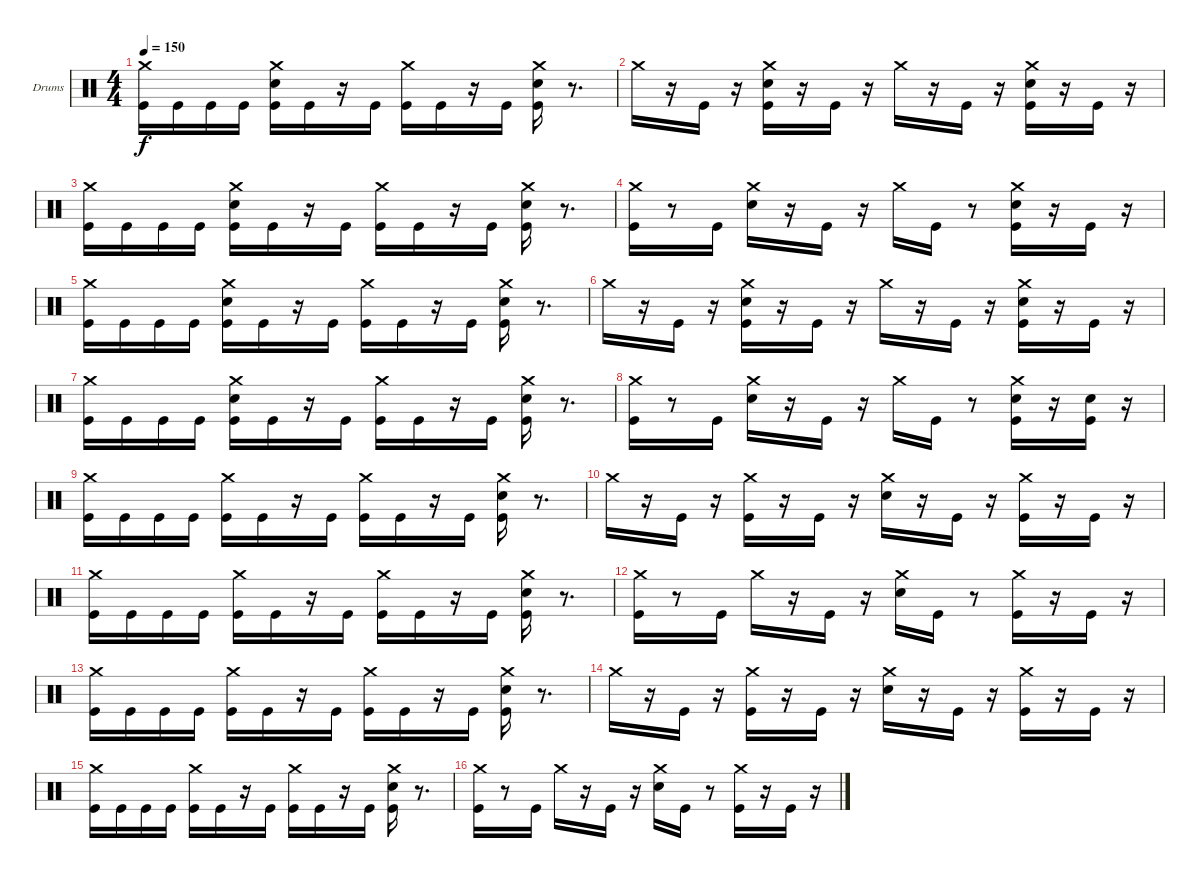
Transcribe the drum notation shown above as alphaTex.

\bracketExtendMode groupsimilarinstruments
\firstSystemTrackNameOrientation horizontal
\otherSystemsTrackNameOrientation horizontal
\track ("Rolo" "Drums") {instrument percussion}
\staff {score}
\articulation defaults
\ts (4 4)
\tempo 150
\clef neutral
\ks c
("Crash medium (hit)" "Kick (hit)").16{dy f} "Kick (hit)".16 "Kick (hit)".16 "Kick (hit)".16 ("Crash medium (hit)" "Snare (hit) 2" "Kick (hit)").16 "Kick (hit)".16 r.16 "Kick (hit)".16 ("Crash medium (hit)" "Kick (hit)").16 "Kick (hit)".16 r.16 "Kick (hit)".16 ("Crash medium (hit)" "Snare (hit) 2" "Kick (hit)").16 r.8{d} |
"Crash medium (hit)".16 r.16 "Kick (hit)".16 r.16 ("Crash medium (hit)" "Snare (hit) 2" "Kick (hit)").16 r.16 "Kick (hit)".16 r.16 "Crash medium (hit)".16 r.16 "Kick (hit)".16 r.16 ("Crash medium (hit)" "Snare (hit) 2" "Kick (hit)").16 r.16 "Kick (hit)".16 r.16 |
("Crash medium (hit)" "Kick (hit)").16 "Kick (hit)".16 "Kick (hit)".16 "Kick (hit)".16 ("Crash medium (hit)" "Snare (hit) 2" "Kick (hit)").16 "Kick (hit)".16 r.16 "Kick (hit)".16 ("Crash medium (hit)" "Kick (hit)").16 "Kick (hit)".16 r.16 "Kick (hit)".16 ("Crash medium (hit)" "Snare (hit) 2" "Kick (hit)").16 r.8{d} |
("Crash medium (hit)" "Kick (hit)").16 r.8 "Kick (hit)".16 ("Crash medium (hit)" "Snare (hit) 2").16 r.16 "Kick (hit)".16 r.16 "Crash medium (hit)".16 "Kick (hit)".16 r.8 ("Crash medium (hit)" "Snare (hit) 2" "Kick (hit)").16 r.16 "Kick (hit)".16 r.16 |
("Crash medium (hit)" "Kick (hit)").16 "Kick (hit)".16 "Kick (hit)".16 "Kick (hit)".16 ("Crash medium (hit)" "Snare (hit) 2" "Kick (hit)").16 "Kick (hit)".16 r.16 "Kick (hit)".16 ("Crash medium (hit)" "Kick (hit)").16 "Kick (hit)".16 r.16 "Kick (hit)".16 ("Crash medium (hit)" "Snare (hit) 2" "Kick (hit)").16 r.8{d} |
"Crash medium (hit)".16 r.16 "Kick (hit)".16 r.16 ("Crash medium (hit)" "Snare (hit) 2" "Kick (hit)").16 r.16 "Kick (hit)".16 r.16 "Crash medium (hit)".16 r.16 "Kick (hit)".16 r.16 ("Crash medium (hit)" "Snare (hit) 2" "Kick (hit)").16 r.16 "Kick (hit)".16 r.16 |
("Crash medium (hit)" "Kick (hit)").16 "Kick (hit)".16 "Kick (hit)".16 "Kick (hit)".16 ("Crash medium (hit)" "Snare (hit) 2" "Kick (hit)").16 "Kick (hit)".16 r.16 "Kick (hit)".16 ("Crash medium (hit)" "Kick (hit)").16 "Kick (hit)".16 r.16 "Kick (hit)".16 ("Crash medium (hit)" "Snare (hit) 2" "Kick (hit)").16 r.8{d} |
("Crash medium (hit)" "Kick (hit)").16 r.8 "Kick (hit)".16 ("Crash medium (hit)" "Snare (hit) 2").16 r.16 "Kick (hit)".16 r.16 "Crash medium (hit)".16 "Kick (hit)".16 r.8 ("Crash medium (hit)" "Snare (hit) 2" "Kick (hit)").16 r.16 ("Snare (hit) 2" "Kick (hit)").16 r.16 |
("Crash medium (hit)" "Kick (hit)").16 "Kick (hit)".16 "Kick (hit)".16 "Kick (hit)".16 ("Crash medium (hit)" "Kick (hit)").16 "Kick (hit)".16 r.16 "Kick (hit)".16 ("Crash medium (hit)" "Kick (hit)").16 "Kick (hit)".16 r.16 "Kick (hit)".16 ("Crash medium (hit)" "Snare (hit) 2" "Kick (hit)").16 r.8{d} |
"Crash medium (hit)".16 r.16 "Kick (hit)".16 r.16 ("Crash medium (hit)" "Kick (hit)").16 r.16 "Kick (hit)".16 r.16 ("Crash medium (hit)" "Snare (hit) 2").16 r.16 "Kick (hit)".16 r.16 ("Crash medium (hit)" "Kick (hit)").16 r.16 "Kick (hit)".16 r.16 |
("Crash medium (hit)" "Kick (hit)").16 "Kick (hit)".16 "Kick (hit)".16 "Kick (hit)".16 ("Crash medium (hit)" "Kick (hit)").16 "Kick (hit)".16 r.16 "Kick (hit)".16 ("Crash medium (hit)" "Kick (hit)").16 "Kick (hit)".16 r.16 "Kick (hit)".16 ("Crash medium (hit)" "Snare (hit) 2" "Kick (hit)").16 r.8{d} |
("Crash medium (hit)" "Kick (hit)").16 r.8 "Kick (hit)".16 "Crash medium (hit)".16 r.16 "Kick (hit)".16 r.16 ("Crash medium (hit)" "Snare (hit) 2").16 "Kick (hit)".16 r.8 ("Crash medium (hit)" "Kick (hit)").16 r.16 "Kick (hit)".16 r.16 |
("Crash medium (hit)" "Kick (hit)").16 "Kick (hit)".16 "Kick (hit)".16 "Kick (hit)".16 ("Crash medium (hit)" "Kick (hit)").16 "Kick (hit)".16 r.16 "Kick (hit)".16 ("Crash medium (hit)" "Kick (hit)").16 "Kick (hit)".16 r.16 "Kick (hit)".16 ("Crash medium (hit)" "Snare (hit) 2" "Kick (hit)").16 r.8{d} |
"Crash medium (hit)".16 r.16 "Kick (hit)".16 r.16 ("Crash medium (hit)" "Kick (hit)").16 r.16 "Kick (hit)".16 r.16 ("Crash medium (hit)" "Snare (hit) 2").16 r.16 "Kick (hit)".16 r.16 ("Crash medium (hit)" "Kick (hit)").16 r.16 "Kick (hit)".16 r.16 |
("Crash medium (hit)" "Kick (hit)").16 "Kick (hit)".16 "Kick (hit)".16 "Kick (hit)".16 ("Crash medium (hit)" "Kick (hit)").16 "Kick (hit)".16 r.16 "Kick (hit)".16 ("Crash medium (hit)" "Kick (hit)").16 "Kick (hit)".16 r.16 "Kick (hit)".16 ("Crash medium (hit)" "Snare (hit) 2" "Kick (hit)").16 r.8{d} |
("Crash medium (hit)" "Kick (hit)").16 r.8 "Kick (hit)".16 "Crash medium (hit)".16 r.16 "Kick (hit)".16 r.16 ("Crash medium (hit)" "Snare (hit) 2").16 "Kick (hit)".16 r.8 ("Crash medium (hit)" "Kick (hit)").16 r.16 "Kick (hit)".16 r.16
